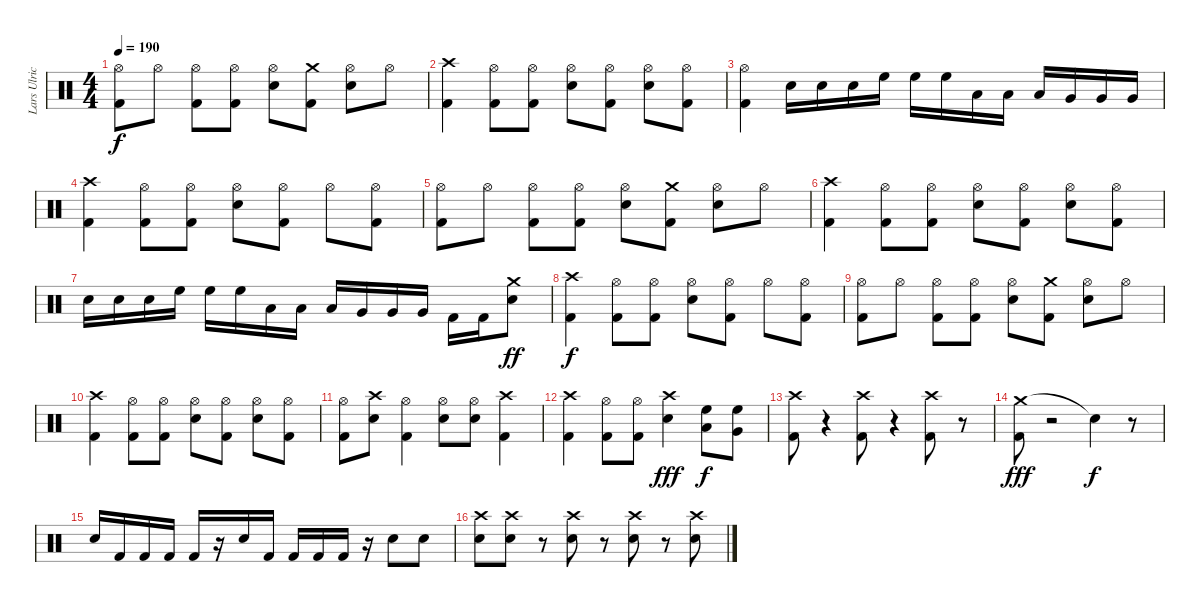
\track ("Lars Ulrich" "Lars Ulric") {instrument percussion}
\staff {score}
\articulation defaults
\ts (4 4)
\tempo 190
\clef neutral
\ks c
("Hi-Hat (open)" "Kick (hit) 2").8{dy f} "Hi-Hat (open)".8 ("Hi-Hat (open)" "Kick (hit) 2").8 ("Hi-Hat (open)" "Kick (hit) 2").8 ("Hi-Hat (open)" "Snare (hit) 2").8 ("Crash medium (hit)" "Kick (hit) 2").8 ("Hi-Hat (open)" "Snare (hit) 2").8 "Hi-Hat (open)".8 |
("Crash high (hit)" "Kick (hit) 2").4 ("Hi-Hat (open)" "Kick (hit) 2").8 ("Hi-Hat (open)" "Kick (hit) 2").8 ("Hi-Hat (open)" "Snare (hit) 2").8 ("Hi-Hat (open)" "Kick (hit) 2").8 ("Hi-Hat (open)" "Snare (hit) 2").8 ("Hi-Hat (open)" "Kick (hit) 2").8 |
("Hi-Hat (open)" "Kick (hit) 2").4 "Snare (hit) 2".16 "Snare (hit) 2".16 "Snare (hit) 2".16 "High Floor Tom (hit)".16 "High Floor Tom (hit)".16 "High Floor Tom (hit)".16 "Low Tom (hit)".16 "Low Tom (hit)".16 "Low Tom (hit)".16 "Very Low Tom (hit)".16 "Very Low Tom (hit)".16 "Very Low Tom (hit)".16 |
("Crash high (hit)" "Kick (hit) 2").4 ("Hi-Hat (open)" "Kick (hit) 2").8 ("Hi-Hat (open)" "Kick (hit) 2").8 ("Hi-Hat (open)" "Snare (hit) 2").8 ("Hi-Hat (open)" "Kick (hit) 2").8 "Hi-Hat (open)".8 ("Hi-Hat (open)" "Kick (hit) 2").8 |
("Hi-Hat (open)" "Kick (hit) 2").8 "Hi-Hat (open)".8 ("Hi-Hat (open)" "Kick (hit) 2").8 ("Hi-Hat (open)" "Kick (hit) 2").8 ("Hi-Hat (open)" "Snare (hit) 2").8 ("Crash medium (hit)" "Kick (hit) 2").8 ("Hi-Hat (open)" "Snare (hit) 2").8 "Hi-Hat (open)".8 |
("Crash high (hit)" "Kick (hit) 2").4 ("Hi-Hat (open)" "Kick (hit) 2").8 ("Hi-Hat (open)" "Kick (hit) 2").8 ("Hi-Hat (open)" "Snare (hit) 2").8 ("Hi-Hat (open)" "Kick (hit) 2").8 ("Hi-Hat (open)" "Snare (hit) 2").8 ("Hi-Hat (open)" "Kick (hit) 2").8 |
"Snare (hit) 2".16 "Snare (hit) 2".16 "Snare (hit) 2".16 "High Floor Tom (hit)".16 "High Floor Tom (hit)".16 "High Floor Tom (hit)".16 "Low Tom (hit)".16 "Low Tom (hit)".16 "Low Tom (hit)".16 "Very Low Tom (hit)".16 "Very Low Tom (hit)".16 "Very Low Tom (hit)".16 "Kick (hit) 2".16 "Kick (hit) 2".16 ("Crash medium (hit)" "Snare (hit) 2").8{dy ff} |
("Crash high (hit)" "Kick (hit) 2").4{dy f} ("Hi-Hat (open)" "Kick (hit) 2").8 ("Hi-Hat (open)" "Kick (hit) 2").8 ("Hi-Hat (open)" "Snare (hit) 2").8 ("Hi-Hat (open)" "Kick (hit) 2").8 "Hi-Hat (open)".8 ("Hi-Hat (open)" "Kick (hit) 2").8 |
("Hi-Hat (open)" "Kick (hit) 2").8 "Hi-Hat (open)".8 ("Hi-Hat (open)" "Kick (hit) 2").8 ("Hi-Hat (open)" "Kick (hit) 2").8 ("Hi-Hat (open)" "Snare (hit) 2").8 ("Crash medium (hit)" "Kick (hit) 2").8 ("Hi-Hat (open)" "Snare (hit) 2").8 "Hi-Hat (open)".8 |
("Crash high (hit)" "Kick (hit) 2").4 ("Hi-Hat (open)" "Kick (hit) 2").8 ("Hi-Hat (open)" "Kick (hit) 2").8 ("Hi-Hat (open)" "Snare (hit) 2").8 ("Hi-Hat (open)" "Kick (hit) 2").8 ("Hi-Hat (open)" "Snare (hit) 2").8 ("Hi-Hat (open)" "Kick (hit) 2").8 |
("Hi-Hat (open)" "Kick (hit) 2").8 ("Crash high (hit)" "Snare (hit) 2").8 ("Hi-Hat (open)" "Kick (hit) 2").4 ("Hi-Hat (open)" "Snare (hit) 2").8 ("Hi-Hat (open)" "Snare (hit) 2").8 ("Crash high (hit)" "Kick (hit) 2").4 |
("Crash high (hit)" "Kick (hit) 2").4 ("Hi-Hat (open)" "Kick (hit) 2").8 ("Hi-Hat (open)" "Kick (hit) 2").8 ("Crash high (hit)" "Snare (hit) 2").4{dy fff} ("Low Tom (hit)" "High Floor Tom (hit)").8{dy f} ("Very Low Tom (hit)" "High Floor Tom (hit)").8 |
("Crash high (hit)" "Kick (hit) 2").8 r.4 ("Crash high (hit)" "Kick (hit) 2").8 r.4 ("Crash high (hit)" "Kick (hit) 2").8 r.8 |
("Crash medium (hit)" "Kick (hit) 2").8{dy fff} r.2 "Snare (hit)"{t}.4{dy f} r.8 |
"Snare (hit) 2".16 "Kick (hit) 2".16 "Kick (hit) 2".16 "Kick (hit) 2".16 "Kick (hit) 2".16 r.16 "Snare (hit) 2".16 "Kick (hit) 2".16 "Kick (hit) 2".16 "Kick (hit) 2".16 "Kick (hit) 2".16 r.16 "Snare (hit) 2".8 "Snare (hit) 2".8 |
("Crash high (hit)" "Snare (hit) 2").8 ("Crash high (hit)" "Snare (hit) 2").8 r.8 ("Crash high (hit)" "Snare (hit) 2").8 r.8 ("Crash high (hit)" "Snare (hit) 2").8 r.8 ("Crash high (hit)" "Snare (hit) 2").8
